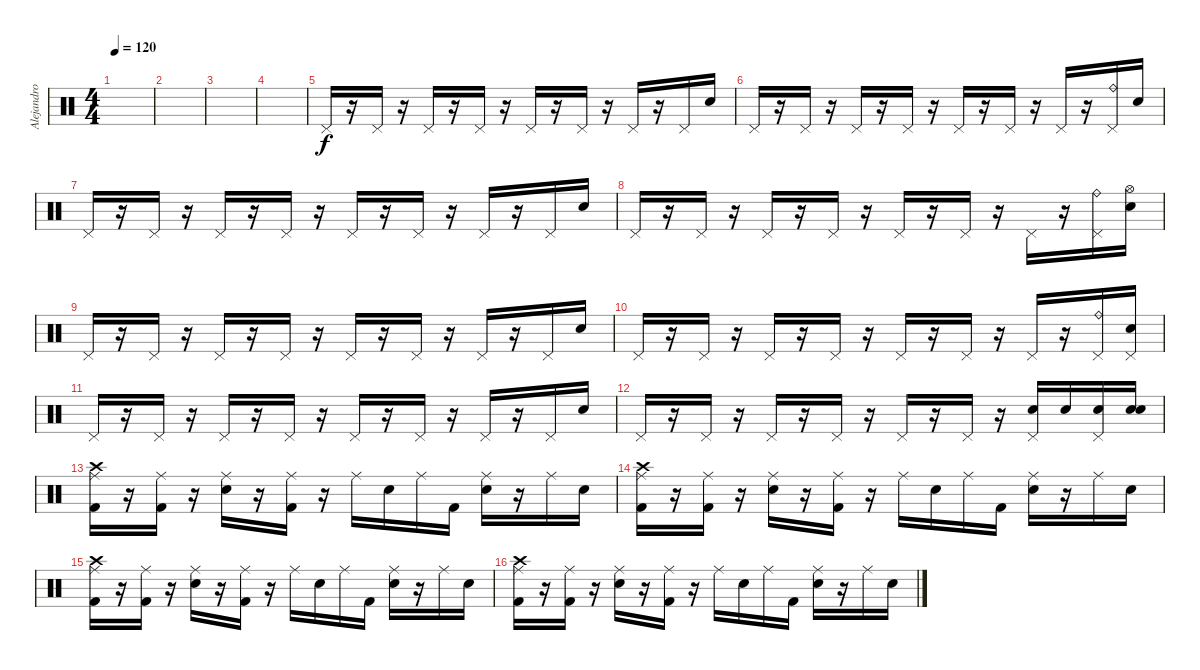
\track ("Alejandro" "Alejandro") {instrument percussion}
\staff {score}
\articulation defaults
\ts (4 4)
\tempo 120
\clef neutral
\ks c
|
|
|
|
"Pedal Hi-Hat (hit)".16 r.16 "Pedal Hi-Hat (hit)".16 r.16 "Pedal Hi-Hat (hit)".16 r.16 "Pedal Hi-Hat (hit)".16 r.16 "Pedal Hi-Hat (hit)".16 r.16 "Pedal Hi-Hat (hit)".16 r.16 "Pedal Hi-Hat (hit)".16 r.16 "Pedal Hi-Hat (hit)".16 "Snare (hit)".16 |
"Pedal Hi-Hat (hit)".16 r.16 "Pedal Hi-Hat (hit)".16 r.16 "Pedal Hi-Hat (hit)".16 r.16 "Pedal Hi-Hat (hit)".16 r.16 "Pedal Hi-Hat (hit)".16 r.16 "Pedal Hi-Hat (hit)".16 r.16 "Pedal Hi-Hat (hit)".16 r.16 ("Ride (bell)" "Pedal Hi-Hat (hit)").16 "Snare (hit)".16 |
"Pedal Hi-Hat (hit)".16 r.16 "Pedal Hi-Hat (hit)".16 r.16 "Pedal Hi-Hat (hit)".16 r.16 "Pedal Hi-Hat (hit)".16 r.16 "Pedal Hi-Hat (hit)".16 r.16 "Pedal Hi-Hat (hit)".16 r.16 "Pedal Hi-Hat (hit)".16 r.16 "Pedal Hi-Hat (hit)".16 "Snare (hit)".16 |
"Pedal Hi-Hat (hit)".16 r.16 "Pedal Hi-Hat (hit)".16 r.16 "Pedal Hi-Hat (hit)".16 r.16 "Pedal Hi-Hat (hit)".16 r.16 "Pedal Hi-Hat (hit)".16 r.16 "Pedal Hi-Hat (hit)".16 r.16 "Pedal Hi-Hat (hit)".16 r.16 ("Ride (bell)" "Pedal Hi-Hat (hit)").16 ("Hi-Hat (open)" "Snare (hit)").16 |
"Pedal Hi-Hat (hit)".16 r.16 "Pedal Hi-Hat (hit)".16 r.16 "Pedal Hi-Hat (hit)".16 r.16 "Pedal Hi-Hat (hit)".16 r.16 "Pedal Hi-Hat (hit)".16 r.16 "Pedal Hi-Hat (hit)".16 r.16 "Pedal Hi-Hat (hit)".16 r.16 "Pedal Hi-Hat (hit)".16 "Snare (hit)".16 |
"Pedal Hi-Hat (hit)".16 r.16 "Pedal Hi-Hat (hit)".16 r.16 "Pedal Hi-Hat (hit)".16 r.16 "Pedal Hi-Hat (hit)".16 r.16 "Pedal Hi-Hat (hit)".16 r.16 "Pedal Hi-Hat (hit)".16 r.16 "Pedal Hi-Hat (hit)".16 r.16 ("Ride (bell)" "Pedal Hi-Hat (hit)").16 ("Pedal Hi-Hat (hit)" "Snare (hit)").16 |
"Pedal Hi-Hat (hit)".16 r.16 "Pedal Hi-Hat (hit)".16 r.16 "Pedal Hi-Hat (hit)".16 r.16 "Pedal Hi-Hat (hit)".16 r.16 "Pedal Hi-Hat (hit)".16 r.16 "Pedal Hi-Hat (hit)".16 r.16 "Pedal Hi-Hat (hit)".16 r.16 "Pedal Hi-Hat (hit)".16 "Snare (hit)".16 |
"Pedal Hi-Hat (hit)".16 r.16 "Pedal Hi-Hat (hit)".16 r.16 "Pedal Hi-Hat (hit)".16 r.16 "Pedal Hi-Hat (hit)".16 r.16 "Pedal Hi-Hat (hit)".16 r.16 "Pedal Hi-Hat (hit)".16 r.16 ("Pedal Hi-Hat (hit)" "Electric Snare (hit)").16 "Electric Snare (hit)".16 ("Pedal Hi-Hat (hit)" "Electric Snare (hit)").16 ("Snare (hit)" "Electric Snare (hit)").16 |
("Crash high (hit)" "Ride (middle)" "Kick (hit) 2").16 r.16 ("Ride (middle)" "Kick (hit) 2").16 r.16 ("Ride (middle)" "Electric Snare (hit)").16 r.16 ("Ride (middle)" "Kick (hit) 2").16 r.16 "Ride (middle)".16 "Electric Snare (hit)".16 "Ride (middle)".16 "Kick (hit) 2".16 ("Ride (middle)" "Electric Snare (hit)").16 r.16 "Ride (middle)".16 "Snare (hit)".16 |
("Crash high (hit)" "Ride (middle)" "Kick (hit) 2").16 r.16 ("Ride (middle)" "Kick (hit) 2").16 r.16 ("Ride (middle)" "Electric Snare (hit)").16 r.16 ("Ride (middle)" "Kick (hit) 2").16 r.16 "Ride (middle)".16 "Electric Snare (hit)".16 "Ride (middle)".16 "Kick (hit) 2".16 ("Ride (middle)" "Electric Snare (hit)").16 r.16 "Ride (middle)".16 "Snare (hit)".16 |
("Crash high (hit)" "Ride (middle)" "Kick (hit) 2").16 r.16 ("Ride (middle)" "Kick (hit) 2").16 r.16 ("Ride (middle)" "Electric Snare (hit)").16 r.16 ("Ride (middle)" "Kick (hit) 2").16 r.16 "Ride (middle)".16 "Electric Snare (hit)".16 "Ride (middle)".16 "Kick (hit) 2".16 ("Ride (middle)" "Electric Snare (hit)").16 r.16 "Ride (middle)".16 "Snare (hit)".16 |
("Crash high (hit)" "Ride (middle)" "Kick (hit) 2").16 r.16 ("Ride (middle)" "Kick (hit) 2").16 r.16 ("Ride (middle)" "Electric Snare (hit)").16 r.16 ("Ride (middle)" "Kick (hit) 2").16 r.16 "Ride (middle)".16 "Electric Snare (hit)".16 "Ride (middle)".16 "Kick (hit) 2".16 ("Ride (middle)" "Electric Snare (hit)").16 r.16 "Ride (middle)".16 "Snare (hit)".16
